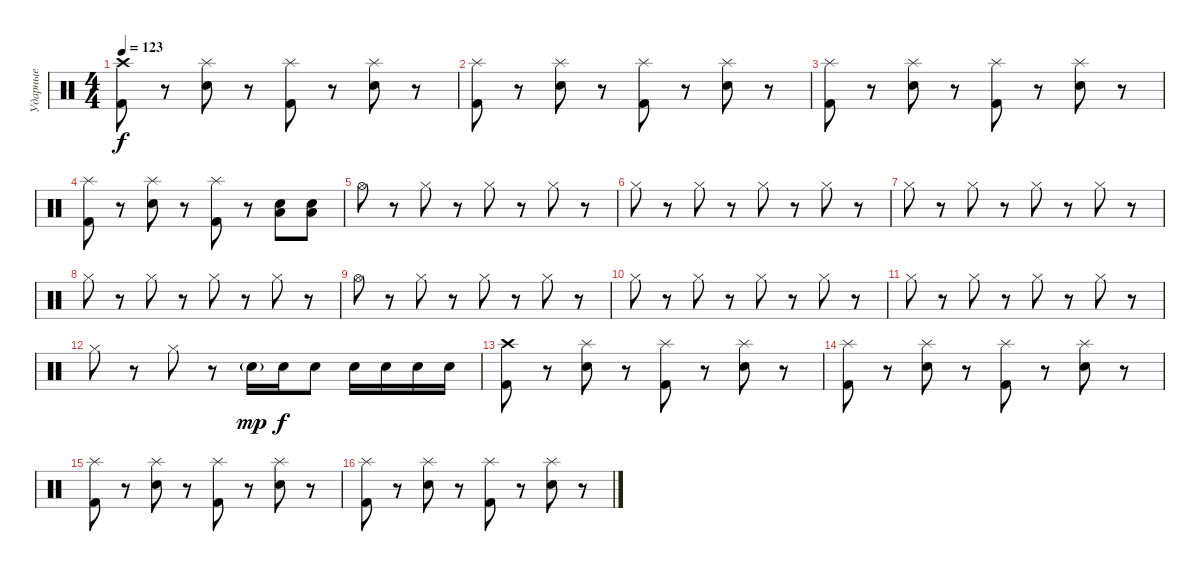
\track ("Ударные" "Ударные") {instrument percussion}
\staff {score}
\articulation defaults
\ts (4 4)
\tempo 123
\clef neutral
\ks c
("Crash high (hit)" "Kick (hit) 2").8{dy f} r.8 ("Splash (hit)" "Electric Snare (hit)").8 r.8 ("Splash (hit)" "Kick (hit) 2").8 r.8 ("Splash (hit)" "Electric Snare (hit)").8 r.8 |
("Splash (hit)" "Kick (hit) 2").8 r.8 ("Splash (hit)" "Electric Snare (hit)").8 r.8 ("Splash (hit)" "Kick (hit) 2").8 r.8 ("Splash (hit)" "Electric Snare (hit)").8 r.8 |
("Splash (hit)" "Kick (hit) 2").8 r.8 ("Splash (hit)" "Electric Snare (hit)").8 r.8 ("Splash (hit)" "Kick (hit) 2").8 r.8 ("Splash (hit)" "Electric Snare (hit)").8 r.8 |
("Splash (hit)" "Kick (hit) 2").8 r.8 ("Splash (hit)" "Electric Snare (hit)").8 r.8 ("Splash (hit)" "Kick (hit) 2").8 r.8 ("Low Tom (hit)" "Electric Snare (hit)").8 ("Low Tom (hit)" "Electric Snare (hit)").8 |
"Hi-Hat (open)".8 r.8 "Hi-Hat (closed)".8 r.8 "Hi-Hat (closed)".8 r.8 "Hi-Hat (closed)".8 r.8 |
"Hi-Hat (closed)".8 r.8 "Hi-Hat (closed)".8 r.8 "Hi-Hat (closed)".8 r.8 "Hi-Hat (closed)".8 r.8 |
"Hi-Hat (closed)".8 r.8 "Hi-Hat (closed)".8 r.8 "Hi-Hat (closed)".8 r.8 "Hi-Hat (closed)".8 r.8 |
"Hi-Hat (closed)".8 r.8 "Hi-Hat (closed)".8 r.8 "Hi-Hat (closed)".8 r.8 "Hi-Hat (closed)".8 r.8 |
"Hi-Hat (open)".8 r.8 "Hi-Hat (closed)".8 r.8 "Hi-Hat (closed)".8 r.8 "Hi-Hat (closed)".8 r.8 |
"Hi-Hat (closed)".8 r.8 "Hi-Hat (closed)".8 r.8 "Hi-Hat (closed)".8 r.8 "Hi-Hat (closed)".8 r.8 |
"Hi-Hat (closed)".8 r.8 "Hi-Hat (closed)".8 r.8 "Hi-Hat (closed)".8 r.8 "Hi-Hat (closed)".8 r.8 |
"Hi-Hat (closed)".8 r.8 "Hi-Hat (closed)".8 r.8 "Electric Snare (hit)"{g}.16{dy mp} "Electric Snare (hit)".16{dy f} "Electric Snare (hit)".8 "Electric Snare (hit)".16 "Electric Snare (hit)".16 "Electric Snare (hit)".16 "Electric Snare (hit)".16 |
("Crash high (hit)" "Kick (hit) 2").8 r.8 ("Splash (hit)" "Electric Snare (hit)").8 r.8 ("Splash (hit)" "Kick (hit) 2").8 r.8 ("Splash (hit)" "Electric Snare (hit)").8 r.8 |
("Splash (hit)" "Kick (hit) 2").8 r.8 ("Splash (hit)" "Electric Snare (hit)").8 r.8 ("Splash (hit)" "Kick (hit) 2").8 r.8 ("Splash (hit)" "Electric Snare (hit)").8 r.8 |
("Splash (hit)" "Kick (hit) 2").8 r.8 ("Splash (hit)" "Electric Snare (hit)").8 r.8 ("Splash (hit)" "Kick (hit) 2").8 r.8 ("Splash (hit)" "Electric Snare (hit)").8 r.8 |
("Splash (hit)" "Kick (hit) 2").8 r.8 ("Splash (hit)" "Electric Snare (hit)").8 r.8 ("Splash (hit)" "Kick (hit) 2").8 r.8 ("Splash (hit)" "Electric Snare (hit)").8 r.8
